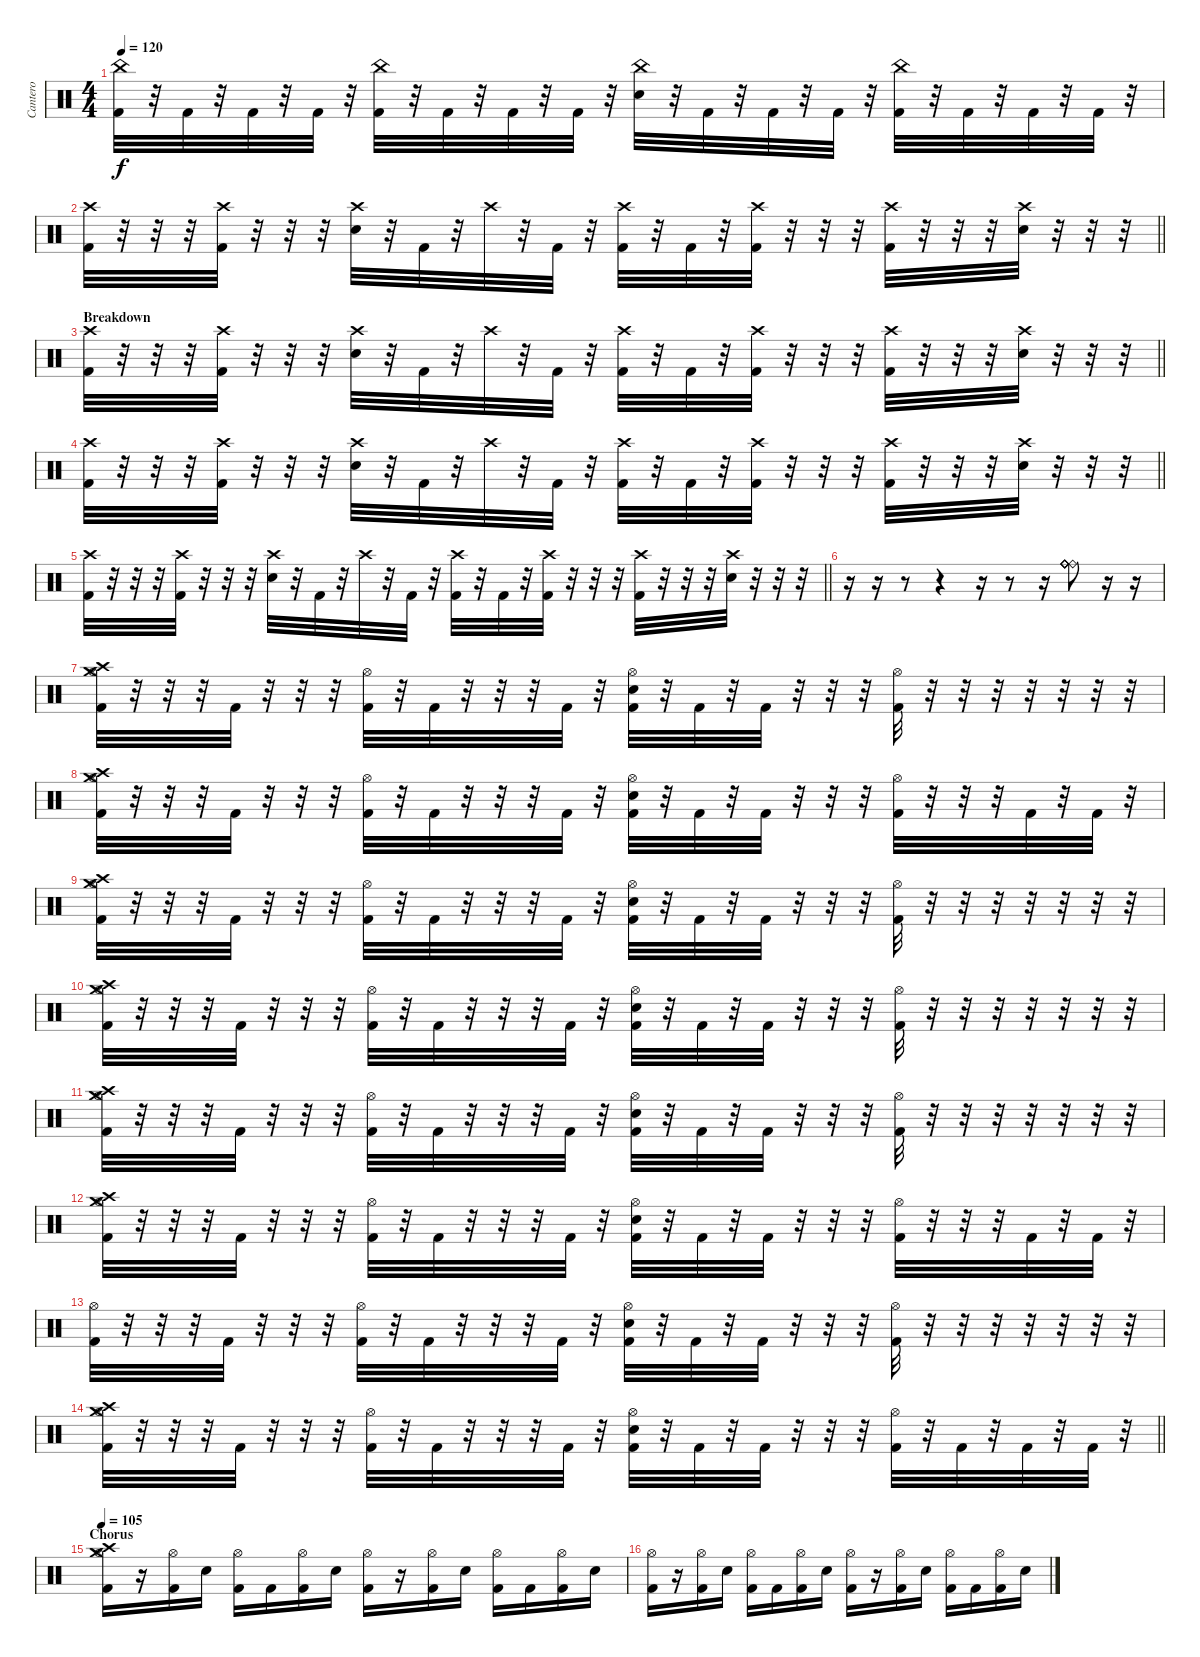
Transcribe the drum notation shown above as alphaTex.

\track ("Cantero" "Cantero") {instrument percussion}
\staff {score}
\articulation defaults
\ts (4 4)
\tempo 120
\clef neutral
\ks c
("China (hit)" "Kick (hit) 2").32{dy f} r.32 "Kick (hit) 2".32 r.32 "Kick (hit) 2".32 r.32 "Kick (hit) 2".32 r.32 ("China (hit)" "Kick (hit) 2").32 r.32 "Kick (hit) 2".32 r.32 "Kick (hit) 2".32 r.32 "Kick (hit) 2".32 r.32 ("China (hit)" "Electric Snare (hit)").32 r.32 "Kick (hit) 2".32 r.32 "Kick (hit) 2".32 r.32 "Kick (hit) 2".32 r.32 ("China (hit)" "Kick (hit) 2").32 r.32 "Kick (hit) 2".32 r.32 "Kick (hit) 2".32 r.32 "Kick (hit) 2".32 r.32 |
\barLineRight lightlight
("Crash high (hit)" "Kick (hit) 2").32 r.32 r.32 r.32 ("Crash high (hit)" "Kick (hit) 2").32 r.32 r.32 r.32 ("Crash high (hit)" "Electric Snare (hit)").32 r.32 "Kick (hit) 2".32 r.32 "Crash high (hit)".32 r.32 "Kick (hit) 2".32 r.32 ("Crash high (hit)" "Kick (hit) 2").32 r.32 "Kick (hit) 2".32 r.32 ("Crash high (hit)" "Kick (hit) 2").32 r.32 r.32 r.32 ("Crash high (hit)" "Kick (hit) 2").32 r.32 r.32 r.32 ("Crash high (hit)" "Electric Snare (hit)").32 r.32 r.32 r.32 |
\section ("" "Breakdown")
\barLineRight lightlight
("Crash high (hit)" "Kick (hit) 2").32 r.32 r.32 r.32 ("Crash high (hit)" "Kick (hit) 2").32 r.32 r.32 r.32 ("Crash high (hit)" "Electric Snare (hit)").32 r.32 "Kick (hit) 2".32 r.32 "Crash high (hit)".32 r.32 "Kick (hit) 2".32 r.32 ("Crash high (hit)" "Kick (hit) 2").32 r.32 "Kick (hit) 2".32 r.32 ("Crash high (hit)" "Kick (hit) 2").32 r.32 r.32 r.32 ("Crash high (hit)" "Kick (hit) 2").32 r.32 r.32 r.32 ("Crash high (hit)" "Electric Snare (hit)").32 r.32 r.32 r.32 |
\barLineRight lightlight
("Crash high (hit)" "Kick (hit) 2").32 r.32 r.32 r.32 ("Crash high (hit)" "Kick (hit) 2").32 r.32 r.32 r.32 ("Crash high (hit)" "Electric Snare (hit)").32 r.32 "Kick (hit) 2".32 r.32 "Crash high (hit)".32 r.32 "Kick (hit) 2".32 r.32 ("Crash high (hit)" "Kick (hit) 2").32 r.32 "Kick (hit) 2".32 r.32 ("Crash high (hit)" "Kick (hit) 2").32 r.32 r.32 r.32 ("Crash high (hit)" "Kick (hit) 2").32 r.32 r.32 r.32 ("Crash high (hit)" "Electric Snare (hit)").32 r.32 r.32 r.32 |
\barLineRight lightlight
("Crash high (hit)" "Kick (hit) 2").32 r.32 r.32 r.32 ("Crash high (hit)" "Kick (hit) 2").32 r.32 r.32 r.32 ("Crash high (hit)" "Electric Snare (hit)").32 r.32 "Kick (hit) 2".32 r.32 "Crash high (hit)".32 r.32 "Kick (hit) 2".32 r.32 ("Crash high (hit)" "Kick (hit) 2").32 r.32 "Kick (hit) 2".32 r.32 ("Crash high (hit)" "Kick (hit) 2").32 r.32 r.32 r.32 ("Crash high (hit)" "Kick (hit) 2").32 r.32 r.32 r.32 ("Crash high (hit)" "Electric Snare (hit)").32 r.32 r.32 r.32 |
r.16 r.16 r.8 r.4 r.16 r.8 r.16 ("Ride (bell)" "Ride (bell)" "Ride (bell)" "Ride (bell)" "Ride (bell)" "Ride (bell)").8 r.16 r.16 |
("Crash high (hit)" "Crash medium (hit)" "Kick (hit) 2" "Hi-Hat (open)").32 r.32 r.32 r.32 "Kick (hit) 2".32 r.32 r.32 r.32 ("Kick (hit) 2" "Hi-Hat (open)").32 r.32 "Kick (hit) 2".32 r.32 r.32 r.32 "Kick (hit) 2".32 r.32 ("Kick (hit) 2" "Electric Snare (hit)" "Hi-Hat (open)").32 r.32 "Kick (hit) 2".32 r.32 "Kick (hit) 2".32 r.32 r.32 r.32 ("Kick (hit) 2" "Hi-Hat (open)").32 r.32 r.32 r.32 r.32 r.32 r.32 r.32 |
("Crash high (hit)" "Crash medium (hit)" "Kick (hit) 2" "Hi-Hat (open)").32 r.32 r.32 r.32 "Kick (hit) 2".32 r.32 r.32 r.32 ("Kick (hit) 2" "Hi-Hat (open)").32 r.32 "Kick (hit) 2".32 r.32 r.32 r.32 "Kick (hit) 2".32 r.32 ("Kick (hit) 2" "Electric Snare (hit)" "Hi-Hat (open)").32 r.32 "Kick (hit) 2".32 r.32 "Kick (hit) 2".32 r.32 r.32 r.32 ("Kick (hit) 2" "Hi-Hat (open)").32 r.32 r.32 r.32 "Kick (hit) 2".32 r.32 "Kick (hit) 2".32 r.32 |
("Crash high (hit)" "Crash medium (hit)" "Kick (hit) 2" "Hi-Hat (open)").32 r.32 r.32 r.32 "Kick (hit) 2".32 r.32 r.32 r.32 ("Kick (hit) 2" "Hi-Hat (open)").32 r.32 "Kick (hit) 2".32 r.32 r.32 r.32 "Kick (hit) 2".32 r.32 ("Kick (hit) 2" "Electric Snare (hit)" "Hi-Hat (open)").32 r.32 "Kick (hit) 2".32 r.32 "Kick (hit) 2".32 r.32 r.32 r.32 ("Kick (hit) 2" "Hi-Hat (open)").32 r.32 r.32 r.32 r.32 r.32 r.32 r.32 |
("Crash high (hit)" "Crash medium (hit)" "Kick (hit) 2" "Hi-Hat (open)").32 r.32 r.32 r.32 "Kick (hit) 2".32 r.32 r.32 r.32 ("Kick (hit) 2" "Hi-Hat (open)").32 r.32 "Kick (hit) 2".32 r.32 r.32 r.32 "Kick (hit) 2".32 r.32 ("Kick (hit) 2" "Electric Snare (hit)" "Hi-Hat (open)").32 r.32 "Kick (hit) 2".32 r.32 "Kick (hit) 2".32 r.32 r.32 r.32 ("Kick (hit) 2" "Hi-Hat (open)").32 r.32 r.32 r.32 r.32 r.32 r.32 r.32 |
("Crash high (hit)" "Crash medium (hit)" "Kick (hit) 2" "Hi-Hat (open)").32 r.32 r.32 r.32 "Kick (hit) 2".32 r.32 r.32 r.32 ("Kick (hit) 2" "Hi-Hat (open)").32 r.32 "Kick (hit) 2".32 r.32 r.32 r.32 "Kick (hit) 2".32 r.32 ("Kick (hit) 2" "Electric Snare (hit)" "Hi-Hat (open)").32 r.32 "Kick (hit) 2".32 r.32 "Kick (hit) 2".32 r.32 r.32 r.32 ("Kick (hit) 2" "Hi-Hat (open)").32 r.32 r.32 r.32 r.32 r.32 r.32 r.32 |
("Crash high (hit)" "Crash medium (hit)" "Kick (hit) 2" "Hi-Hat (open)").32 r.32 r.32 r.32 "Kick (hit) 2".32 r.32 r.32 r.32 ("Kick (hit) 2" "Hi-Hat (open)").32 r.32 "Kick (hit) 2".32 r.32 r.32 r.32 "Kick (hit) 2".32 r.32 ("Kick (hit) 2" "Electric Snare (hit)" "Hi-Hat (open)").32 r.32 "Kick (hit) 2".32 r.32 "Kick (hit) 2".32 r.32 r.32 r.32 ("Kick (hit) 2" "Hi-Hat (open)").32 r.32 r.32 r.32 "Kick (hit) 2".32 r.32 "Kick (hit) 2".32 r.32 |
("Kick (hit) 2" "Hi-Hat (open)").32 r.32 r.32 r.32 "Kick (hit) 2".32 r.32 r.32 r.32 ("Kick (hit) 2" "Hi-Hat (open)").32 r.32 "Kick (hit) 2".32 r.32 r.32 r.32 "Kick (hit) 2".32 r.32 ("Kick (hit) 2" "Electric Snare (hit)" "Hi-Hat (open)").32 r.32 "Kick (hit) 2".32 r.32 "Kick (hit) 2".32 r.32 r.32 r.32 ("Kick (hit) 2" "Hi-Hat (open)").32 r.32 r.32 r.32 r.32 r.32 r.32 r.32 |
\barLineRight lightlight
("Crash high (hit)" "Crash medium (hit)" "Kick (hit) 2" "Hi-Hat (open)").32 r.32 r.32 r.32 "Kick (hit) 2".32 r.32 r.32 r.32 ("Kick (hit) 2" "Hi-Hat (open)").32 r.32 "Kick (hit) 2".32 r.32 r.32 r.32 "Kick (hit) 2".32 r.32 ("Kick (hit) 2" "Electric Snare (hit)" "Hi-Hat (open)").32 r.32 "Kick (hit) 2".32 r.32 "Kick (hit) 2".32 r.32 r.32 r.32 ("Kick (hit) 2" "Hi-Hat (open)").32 r.32 "Kick (hit) 2".32 r.32 "Kick (hit) 2".32 r.32 "Kick (hit) 2".32 r.32 |
\section ("" "Chorus")
\tempo 105
("Hi-Hat (open)" "Kick (hit) 2" "Crash high (hit)" "Crash medium (hit)").16 r.16 ("Kick (hit) 2" "Hi-Hat (open)").16 "Electric Snare (hit)".16 ("Hi-Hat (open)" "Kick (hit) 2").16 "Kick (hit) 2".16 ("Hi-Hat (open)" "Kick (hit) 2").16 "Electric Snare (hit)".16 ("Hi-Hat (open)" "Kick (hit) 2").16 r.16 ("Kick (hit) 2" "Hi-Hat (open)").16 "Electric Snare (hit)".16 ("Hi-Hat (open)" "Kick (hit) 2").16 "Kick (hit) 2".16 ("Hi-Hat (open)" "Kick (hit) 2").16 "Electric Snare (hit)".16 |
("Hi-Hat (open)" "Kick (hit) 2").16 r.16 ("Kick (hit) 2" "Hi-Hat (open)").16 "Electric Snare (hit)".16 ("Hi-Hat (open)" "Kick (hit) 2").16 "Kick (hit) 2".16 ("Hi-Hat (open)" "Kick (hit) 2").16 "Electric Snare (hit)".16 ("Hi-Hat (open)" "Kick (hit) 2").16 r.16 ("Kick (hit) 2" "Hi-Hat (open)").16 "Electric Snare (hit)".16 ("Hi-Hat (open)" "Kick (hit) 2").16 "Kick (hit) 2".16 ("Hi-Hat (open)" "Kick (hit) 2").16 "Electric Snare (hit)".16
